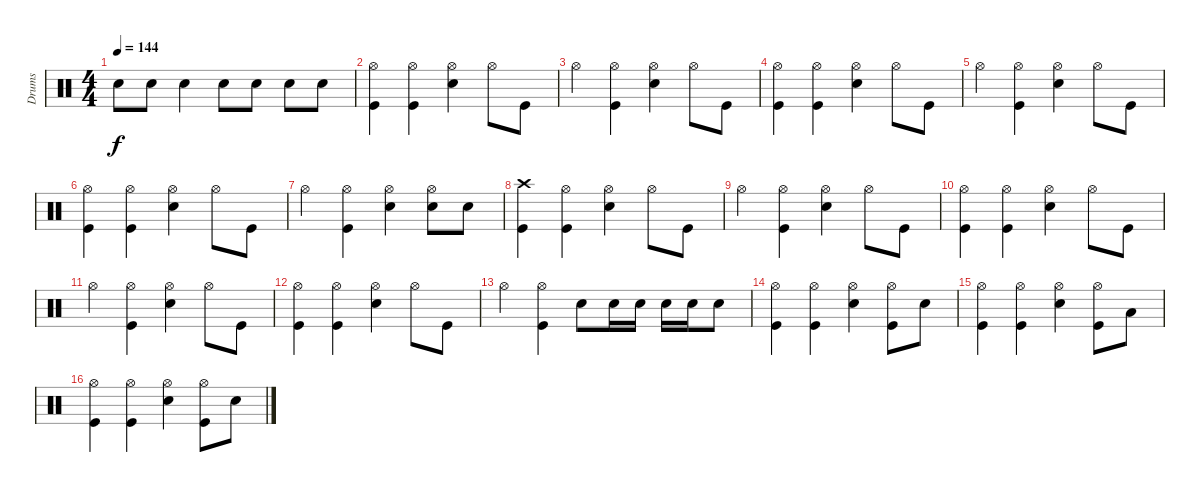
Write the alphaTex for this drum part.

\track ("Drums               " "Drums     ") {instrument percussion}
\staff {score}
\articulation defaults
\ts (4 4)
\tempo 144
\clef neutral
\ks c "Snare (hit)"{t}.8{dy f} "Snare (hit) 2".8 "Snare (hit) 2".4 "Snare (hit) 2".8 "Snare (hit) 2".8 "Snare (hit) 2".8 "Snare (hit) 2".8
|
("Kick (hit)" "Hi-Hat (open)").4 ("Kick (hit)" "Hi-Hat (open)").4 ("Snare (hit) 2" "Hi-Hat (open)").4 "Hi-Hat (open)".8 "Kick (hit)".8 |
"Hi-Hat (open)".4 ("Hi-Hat (open)" "Kick (hit)").4 ("Snare (hit) 2" "Hi-Hat (open)").4 "Hi-Hat (open)".8 "Kick (hit)".8 |
("Kick (hit)" "Hi-Hat (open)").4 ("Kick (hit)" "Hi-Hat (open)").4 ("Snare (hit) 2" "Hi-Hat (open)").4 "Hi-Hat (open)".8 "Kick (hit)".8 |
"Hi-Hat (open)".4 ("Hi-Hat (open)" "Kick (hit)").4 ("Snare (hit) 2" "Hi-Hat (open)").4 "Hi-Hat (open)".8 "Kick (hit)".8 |
("Kick (hit)" "Hi-Hat (open)").4 ("Kick (hit)" "Hi-Hat (open)").4 ("Snare (hit) 2" "Hi-Hat (open)").4 "Hi-Hat (open)".8 "Kick (hit)".8 |
"Hi-Hat (open)".4 ("Hi-Hat (open)" "Kick (hit)").4 ("Snare (hit) 2" "Hi-Hat (open)").4 ("Hi-Hat (open)" "Snare (hit) 2").8 "Snare (hit) 2".8 |
("Kick (hit)" "Crash high (hit)").4 ("Kick (hit)" "Hi-Hat (open)").4 ("Snare (hit) 2" "Hi-Hat (open)").4 "Hi-Hat (open)".8 "Kick (hit)".8 |
"Hi-Hat (open)".4 ("Hi-Hat (open)" "Kick (hit)").4 ("Snare (hit) 2" "Hi-Hat (open)").4 "Hi-Hat (open)".8 "Kick (hit)".8 |
("Kick (hit)" "Hi-Hat (open)").4 ("Kick (hit)" "Hi-Hat (open)").4 ("Snare (hit) 2" "Hi-Hat (open)").4 "Hi-Hat (open)".8 "Kick (hit)".8 |
"Hi-Hat (open)".4 ("Hi-Hat (open)" "Kick (hit)").4 ("Snare (hit) 2" "Hi-Hat (open)").4 "Hi-Hat (open)".8 "Kick (hit)".8 |
("Kick (hit)" "Hi-Hat (open)").4 ("Kick (hit)" "Hi-Hat (open)").4 ("Snare (hit) 2" "Hi-Hat (open)").4 "Hi-Hat (open)".8 "Kick (hit)".8 |
"Hi-Hat (open)".4 ("Hi-Hat (open)" "Kick (hit)").4 "Snare (hit) 2".8 "Snare (hit) 2".16 "Snare (hit) 2".16 "Snare (hit) 2".16 "Snare (hit) 2".16 "Snare (hit) 2".8 |
("Kick (hit)" "Hi-Hat (open)").4 ("Kick (hit)" "Hi-Hat (open)").4 ("Snare (hit) 2" "Hi-Hat (open)").4 ("Hi-Hat (open)" "Kick (hit)").8 "Snare (hit) 2".8 |
("Kick (hit)" "Hi-Hat (open)").4 ("Kick (hit)" "Hi-Hat (open)").4 ("Snare (hit) 2" "Hi-Hat (open)").4 ("Kick (hit)" "Hi-Hat (open)").8 "Low Tom (hit)".8 |
("Kick (hit)" "Hi-Hat (open)").4 ("Kick (hit)" "Hi-Hat (open)").4 ("Snare (hit) 2" "Hi-Hat (open)").4 ("Hi-Hat (open)" "Kick (hit)").8 "Snare (hit) 2".8
